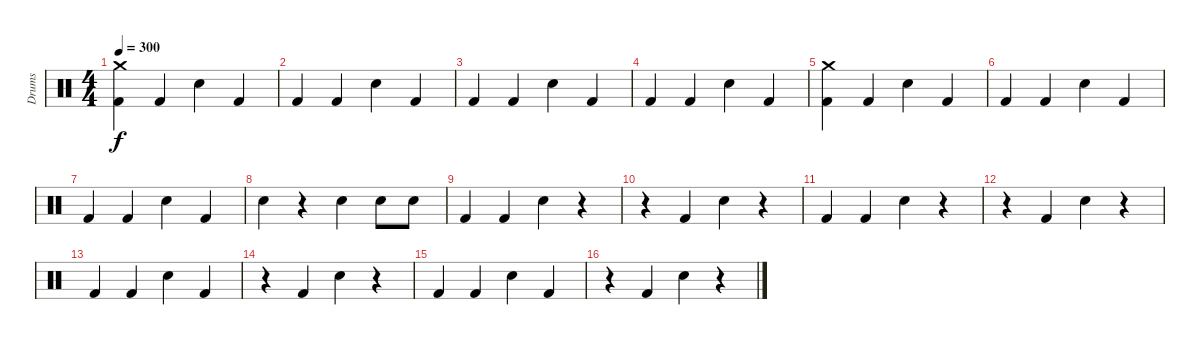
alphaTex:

\track ("Drums" "Drums") {instrument percussion}
\staff {score}
\articulation defaults
\ts (4 4)
\tempo 300
\clef neutral
\ks c
("Crash medium (hit)" "Kick (hit) 2").4{dy f} "Kick (hit) 2".4 "Snare (hit) 2".4 "Kick (hit) 2".4 |
"Kick (hit) 2".4 "Kick (hit) 2".4 "Snare (hit) 2".4 "Kick (hit) 2".4 |
"Kick (hit) 2".4 "Kick (hit) 2".4 "Snare (hit) 2".4 "Kick (hit) 2".4 |
"Kick (hit) 2".4 "Kick (hit) 2".4 "Snare (hit) 2".4 "Kick (hit) 2".4 |
("Crash medium (hit)" "Kick (hit) 2").4 "Kick (hit) 2".4 "Snare (hit) 2".4 "Kick (hit) 2".4 |
"Kick (hit) 2".4 "Kick (hit) 2".4 "Snare (hit) 2".4 "Kick (hit) 2".4 |
"Kick (hit) 2".4 "Kick (hit) 2".4 "Snare (hit) 2".4 "Kick (hit) 2".4 |
"Snare (hit) 2".4 r.4 "Snare (hit) 2".4 "Snare (hit) 2".8 "Snare (hit) 2".8 |
"Kick (hit) 2".4 "Kick (hit) 2".4 "Snare (hit) 2".4 r.4 |
r.4 "Kick (hit) 2".4 "Snare (hit) 2".4 r.4 |
"Kick (hit) 2".4 "Kick (hit) 2".4 "Snare (hit) 2".4 r.4 |
r.4 "Kick (hit) 2".4 "Snare (hit) 2".4 r.4 |
"Kick (hit) 2".4 "Kick (hit) 2".4 "Snare (hit) 2".4 "Kick (hit) 2".4 |
r.4 "Kick (hit) 2".4 "Snare (hit) 2".4 r.4 |
"Kick (hit) 2".4 "Kick (hit) 2".4 "Snare (hit) 2".4 "Kick (hit) 2".4 |
r.4 "Kick (hit) 2".4 "Snare (hit) 2".4 r.4
